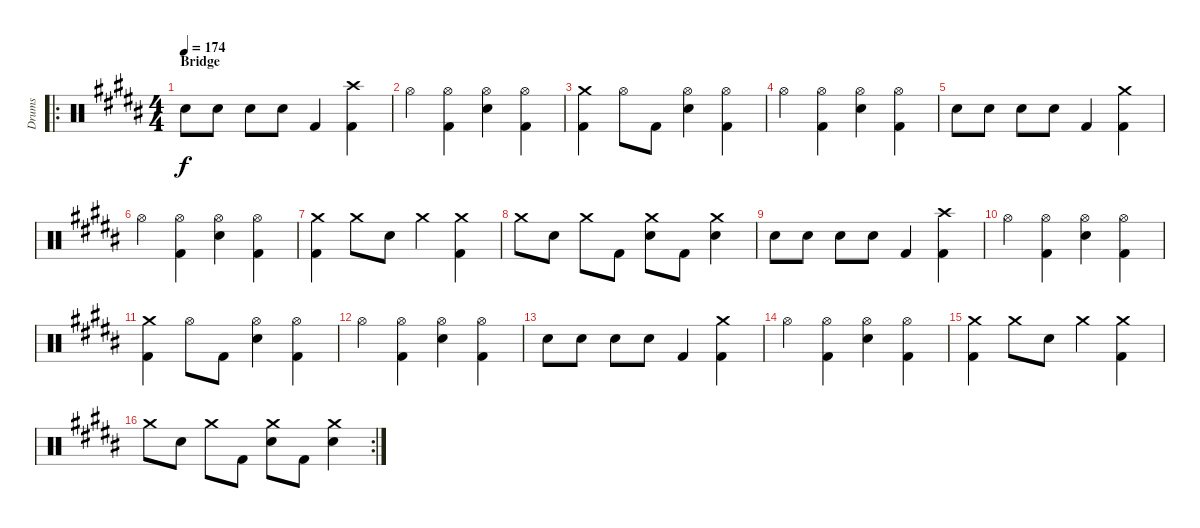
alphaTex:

\track ("Drums" "Drums") {instrument percussion}
\staff {score}
\articulation defaults
\ro
\ts (4 4)
\section ("" "Bridge")
\tempo 174
\clef neutral
\ks g#minor "Electric Snare (hit)".8{dy f} "Electric Snare (hit)".8 "Electric Snare (hit)".8 "Electric Snare (hit)".8 "Kick (hit) 2".4
("Crash high (hit)" "Kick (hit) 2").4 |
"Hi-Hat (open)".4 ("Hi-Hat (open)" "Kick (hit) 2").4 ("Hi-Hat (open)" "Electric Snare (hit)").4 ("Hi-Hat (open)" "Kick (hit) 2").4 |
("Crash medium (hit)" "Kick (hit) 2").4 "Hi-Hat (open)".8 "Kick (hit) 2".8 ("Hi-Hat (open)" "Electric Snare (hit)").4 ("Hi-Hat (open)" "Kick (hit) 2").4 |
"Hi-Hat (open)".4 ("Hi-Hat (open)" "Kick (hit) 2").4 ("Hi-Hat (open)" "Electric Snare (hit)").4 ("Hi-Hat (open)" "Kick (hit) 2").4 |
"Electric Snare (hit)".8 "Electric Snare (hit)".8 "Electric Snare (hit)".8 "Electric Snare (hit)".8 "Kick (hit) 2".4 ("Crash medium (hit)" "Kick (hit) 2").4 |
"Hi-Hat (open)".4 ("Hi-Hat (open)" "Kick (hit) 2").4 ("Hi-Hat (open)" "Electric Snare (hit)").4 ("Hi-Hat (open)" "Kick (hit) 2").4 |
("Crash medium (hit)" "Kick (hit) 2").4 "Crash medium (hit)".8 "Electric Snare (hit)".8 "Crash medium (hit)".4 ("Crash medium (hit)" "Kick (hit) 2").4 |
"Crash medium (hit)".8 "Electric Snare (hit)".8 "Crash medium (hit)".8 "Kick (hit) 2".8 ("Crash medium (hit)" "Electric Snare (hit)").8 "Kick (hit) 2".8 ("Crash medium (hit)" "Electric Snare (hit)").4 |
"Electric Snare (hit)".8 "Electric Snare (hit)".8 "Electric Snare (hit)".8 "Electric Snare (hit)".8 "Kick (hit) 2".4 ("Crash high (hit)" "Kick (hit) 2").4 |
"Hi-Hat (open)".4 ("Hi-Hat (open)" "Kick (hit) 2").4 ("Hi-Hat (open)" "Electric Snare (hit)").4 ("Hi-Hat (open)" "Kick (hit) 2").4 |
("Crash medium (hit)" "Kick (hit) 2").4 "Hi-Hat (open)".8 "Kick (hit) 2".8 ("Hi-Hat (open)" "Electric Snare (hit)").4 ("Hi-Hat (open)" "Kick (hit) 2").4 |
"Hi-Hat (open)".4 ("Hi-Hat (open)" "Kick (hit) 2").4 ("Hi-Hat (open)" "Electric Snare (hit)").4 ("Hi-Hat (open)" "Kick (hit) 2").4 |
"Electric Snare (hit)".8 "Electric Snare (hit)".8 "Electric Snare (hit)".8 "Electric Snare (hit)".8 "Kick (hit) 2".4 ("Crash medium (hit)" "Kick (hit) 2").4 |
"Hi-Hat (open)".4 ("Hi-Hat (open)" "Kick (hit) 2").4 ("Hi-Hat (open)" "Electric Snare (hit)").4 ("Hi-Hat (open)" "Kick (hit) 2").4 |
("Crash medium (hit)" "Kick (hit) 2").4 "Crash medium (hit)".8 "Electric Snare (hit)".8 "Crash medium (hit)".4 ("Crash medium (hit)" "Kick (hit) 2").4 |
\rc 2 "Crash medium (hit)".8 "Electric Snare (hit)".8 "Crash medium (hit)".8 "Kick (hit) 2".8
("Crash medium (hit)" "Electric Snare (hit)").8 "Kick (hit) 2".8 ("Crash medium (hit)" "Electric Snare (hit)").4
